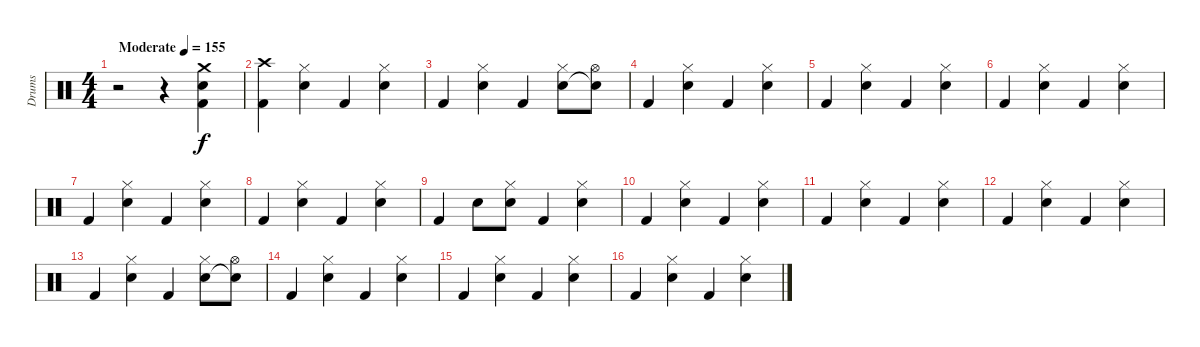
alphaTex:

\track ("Drums" "Drums") {instrument percussion}
\staff {score}
\articulation defaults
\ts (4 4)
\tempo (155 "Moderate")
\clef neutral
\ks c
r.2{dy f} r.4 ("Kick (hit) 2" "Electric Snare (hit)" "Crash medium (hit)").4 |
("Kick (hit) 2" "Crash high (hit)").4 ("Electric Snare (hit)" "Hi-Hat (closed)").4 "Kick (hit) 2".4 ("Electric Snare (hit)" "Hi-Hat (closed)").4 |
"Kick (hit) 2".4 ("Electric Snare (hit)" "Hi-Hat (closed)").4 "Kick (hit) 2".4 ("Electric Snare (hit)" "Hi-Hat (closed)").8 ("Snare (hit)"{t} "Hi-Hat (open)").8 |
"Kick (hit) 2".4 ("Electric Snare (hit)" "Hi-Hat (closed)").4 "Kick (hit) 2".4 ("Electric Snare (hit)" "Hi-Hat (closed)").4 |
"Kick (hit) 2".4 ("Electric Snare (hit)" "Hi-Hat (closed)").4 "Kick (hit) 2".4 ("Electric Snare (hit)" "Hi-Hat (closed)").4 |
"Kick (hit) 2".4 ("Electric Snare (hit)" "Hi-Hat (closed)").4 "Kick (hit) 2".4 ("Electric Snare (hit)" "Hi-Hat (closed)").4 |
"Kick (hit) 2".4 ("Electric Snare (hit)" "Hi-Hat (closed)").4 "Kick (hit) 2".4 ("Electric Snare (hit)" "Hi-Hat (closed)").4 |
"Kick (hit) 2".4 ("Electric Snare (hit)" "Hi-Hat (closed)").4 "Kick (hit) 2".4 ("Electric Snare (hit)" "Hi-Hat (closed)").4 |
"Kick (hit) 2".4 "Electric Snare (hit)".8 ("Electric Snare (hit)" "Hi-Hat (closed)").8 "Kick (hit) 2".4 ("Electric Snare (hit)" "Hi-Hat (closed)").4 |
"Kick (hit) 2".4 ("Electric Snare (hit)" "Hi-Hat (closed)").4 "Kick (hit) 2".4 ("Electric Snare (hit)" "Hi-Hat (closed)").4 |
"Kick (hit) 2".4 ("Electric Snare (hit)" "Hi-Hat (closed)").4 "Kick (hit) 2".4 ("Electric Snare (hit)" "Hi-Hat (closed)").4 |
"Kick (hit) 2".4 ("Electric Snare (hit)" "Hi-Hat (closed)").4 "Kick (hit) 2".4 ("Electric Snare (hit)" "Hi-Hat (closed)").4 |
"Kick (hit) 2".4 ("Electric Snare (hit)" "Hi-Hat (closed)").4 "Kick (hit) 2".4 ("Electric Snare (hit)" "Hi-Hat (closed)").8 ("Snare (hit)"{t} "Hi-Hat (open)").8 |
"Kick (hit) 2".4 ("Electric Snare (hit)" "Hi-Hat (closed)").4 "Kick (hit) 2".4 ("Electric Snare (hit)" "Hi-Hat (closed)").4 |
"Kick (hit) 2".4 ("Electric Snare (hit)" "Hi-Hat (closed)").4 "Kick (hit) 2".4 ("Electric Snare (hit)" "Hi-Hat (closed)").4 |
"Kick (hit) 2".4 ("Electric Snare (hit)" "Hi-Hat (closed)").4 "Kick (hit) 2".4 ("Electric Snare (hit)" "Hi-Hat (closed)").4
